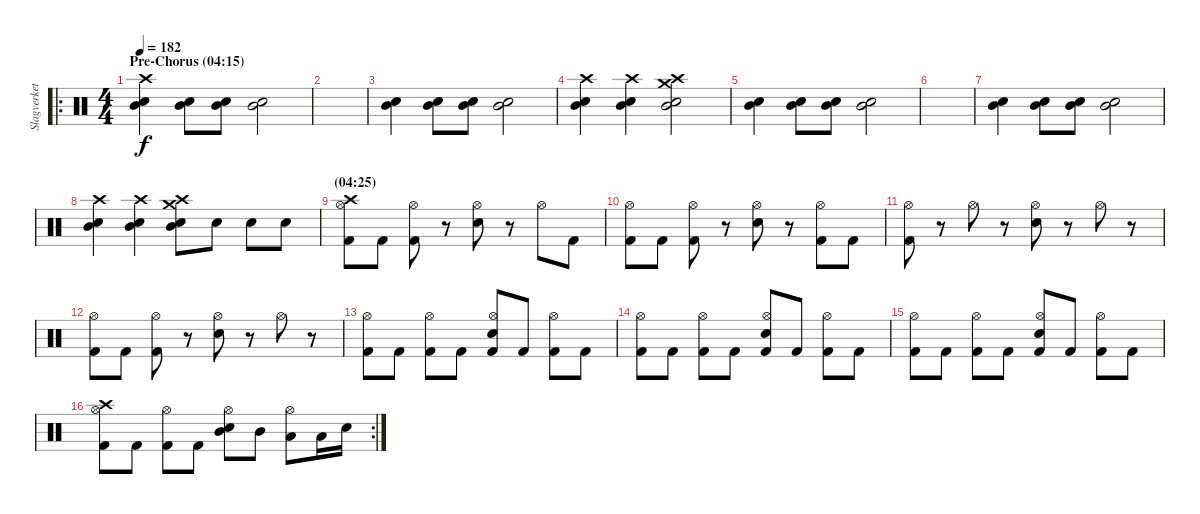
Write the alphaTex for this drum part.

\track ("Slagverket! =)" "Slagverket") {instrument percussion}
\staff {score}
\articulation defaults
\ro
\ts (4 4)
\section ("" "Pre-Chorus (04:15)")
\tempo 182
\clef neutral
\ks c
("Crash high (hit)" "Snare (hit) 2" "Mid Tom (hit)").4{dy f} ("Snare (hit) 2" "Mid Tom (hit)").8 ("Snare (hit) 2" "Mid Tom (hit)").8 ("Snare (hit) 2" "Mid Tom (hit)").2 |
|
("Snare (hit) 2" "Mid Tom (hit)").4 ("Snare (hit) 2" "Mid Tom (hit)").8 ("Snare (hit) 2" "Mid Tom (hit)").8 ("Snare (hit) 2" "Mid Tom (hit)").2 |
("Crash high (hit)" "Snare (hit) 2" "Mid Tom (hit)").4 ("Crash high (hit)" "Snare (hit) 2" "Mid Tom (hit)").4 ("Crash high (hit)" "Crash medium (hit)" "Snare (hit) 2" "Mid Tom (hit)").2 |
("Snare (hit) 2" "Mid Tom (hit)").4 ("Snare (hit) 2" "Mid Tom (hit)").8 ("Snare (hit) 2" "Mid Tom (hit)").8 ("Snare (hit) 2" "Mid Tom (hit)").2 |
|
("Snare (hit) 2" "Mid Tom (hit)").4 ("Snare (hit) 2" "Mid Tom (hit)").8 ("Snare (hit) 2" "Mid Tom (hit)").8 ("Snare (hit) 2" "Mid Tom (hit)").2 |
("Crash high (hit)" "Snare (hit) 2" "Mid Tom (hit)").4 ("Crash high (hit)" "Snare (hit) 2" "Mid Tom (hit)").4 ("Crash high (hit)" "Crash medium (hit)" "Snare (hit) 2" "Mid Tom (hit)").8 "Snare (hit) 2".8 "Snare (hit) 2".8 "Snare (hit) 2".8 |
\section ("" "(04:25)")
("Hi-Hat (open)" "Crash high (hit)" "Kick (hit) 2").8 "Kick (hit) 2".8 ("Hi-Hat (open)" "Kick (hit) 2").8 r.8 ("Hi-Hat (open)" "Snare (hit) 2").8 r.8 "Hi-Hat (open)".8 "Kick (hit) 2".8 |
("Hi-Hat (open)" "Kick (hit) 2").8 "Kick (hit) 2".8 ("Hi-Hat (open)" "Kick (hit) 2").8 r.8 ("Hi-Hat (open)" "Snare (hit) 2").8 r.8 ("Hi-Hat (open)" "Kick (hit) 2").8 "Kick (hit) 2".8 |
("Hi-Hat (open)" "Kick (hit) 2").8 r.8 "Hi-Hat (open)".8 r.8 ("Hi-Hat (open)" "Snare (hit) 2").8 r.8 "Hi-Hat (open)".8 r.8 |
("Hi-Hat (open)" "Kick (hit) 2").8 "Kick (hit) 2".8 ("Hi-Hat (open)" "Kick (hit) 2").8 r.8 ("Hi-Hat (open)" "Snare (hit) 2").8 r.8 "Hi-Hat (open)".8 r.8 |
("Hi-Hat (open)" "Kick (hit) 2").8 "Kick (hit) 2".8 ("Hi-Hat (open)" "Kick (hit) 2").8 "Kick (hit) 2".8 ("Hi-Hat (open)" "Snare (hit) 2" "Kick (hit) 2").8 "Kick (hit) 2".8 ("Hi-Hat (open)" "Kick (hit) 2").8 "Kick (hit) 2".8 |
("Hi-Hat (open)" "Kick (hit) 2").8 "Kick (hit) 2".8 ("Hi-Hat (open)" "Kick (hit) 2").8 "Kick (hit) 2".8 ("Hi-Hat (open)" "Snare (hit) 2" "Kick (hit) 2").8 "Kick (hit) 2".8 ("Hi-Hat (open)" "Kick (hit) 2").8 "Kick (hit) 2".8 |
("Hi-Hat (open)" "Kick (hit) 2").8 "Kick (hit) 2".8 ("Hi-Hat (open)" "Kick (hit) 2").8 "Kick (hit) 2".8 ("Hi-Hat (open)" "Snare (hit) 2" "Kick (hit) 2").8 "Kick (hit) 2".8 ("Hi-Hat (open)" "Kick (hit) 2").8 "Kick (hit) 2".8 |
\rc 2
("Hi-Hat (open)" "Crash high (hit)" "Kick (hit) 2").8 "Kick (hit) 2".8 ("Hi-Hat (open)" "Kick (hit) 2").8 "Kick (hit) 2".8 ("Hi-Hat (open)" "Mid Tom (hit)" "Snare (hit) 2").8 "Mid Tom (hit)".8 ("Hi-Hat (open)" "Low Tom (hit)").8 "Low Tom (hit)".16 "Snare (hit) 2".16
